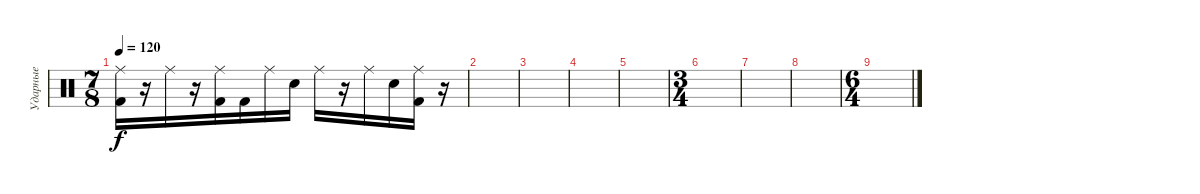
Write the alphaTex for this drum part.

\track ("Ударные" "Ударные") {instrument percussion}
\staff {score}
\articulation defaults
\ts (7 8)
\tempo 120
\clef neutral
\ks c
("Ride (middle)" "Kick (hit) 2").16{dy f} r.16 "Ride (middle)".16 r.16 ("Ride (middle)" "Kick (hit) 2").16 "Kick (hit) 2".16 "Ride (middle)".16 "Electric Snare (hit)".16 "Ride (middle)".16 r.16 "Ride (middle)".16 "Electric Snare (hit)".16 ("Ride (middle)" "Kick (hit) 2").16 r.16 |
|
|
|
|
\ts (3 4)
|
|
|
\ts (6 4)
